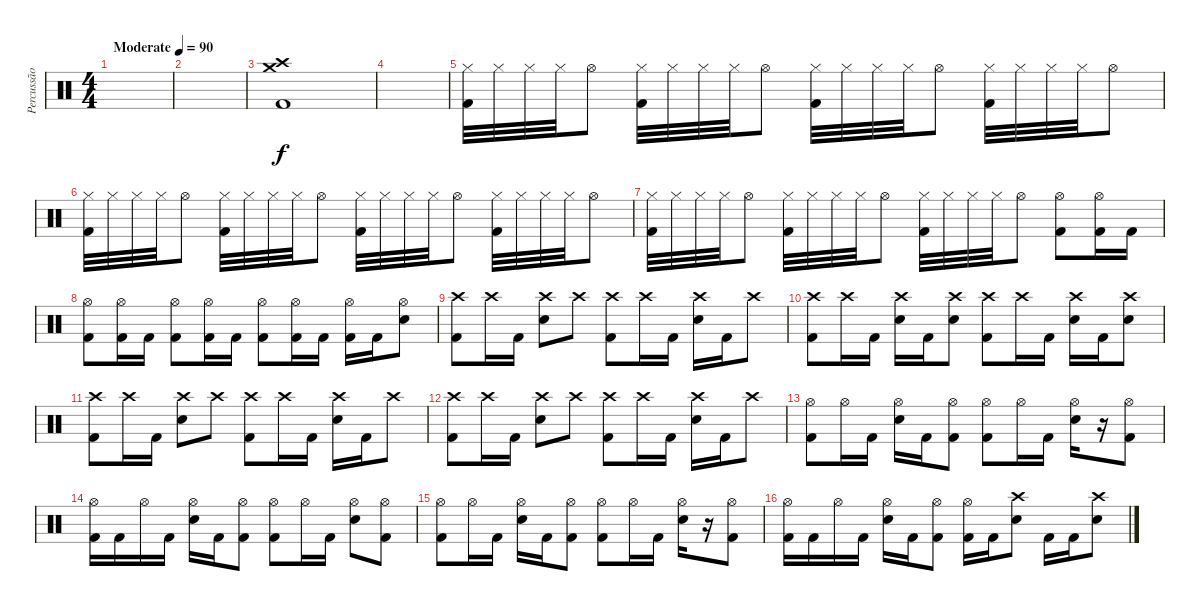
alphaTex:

\track ("Percussão" "Percussão") {instrument percussion}
\staff {score}
\articulation defaults
\ts (4 4)
\tempo (90 "Moderate")
\clef neutral
\ks c
|
|
("Crash medium (hit)" "Crash high (hit)" "Kick (hit) 2").1 |
|
("Hi-Hat (closed)" "Kick (hit) 2").32 "Hi-Hat (closed)".32 "Hi-Hat (closed)".32 "Hi-Hat (closed)".32 "Hi-Hat (open)".8 ("Hi-Hat (closed)" "Kick (hit) 2").32 "Hi-Hat (closed)".32 "Hi-Hat (closed)".32 "Hi-Hat (closed)".32 "Hi-Hat (open)".8 ("Hi-Hat (closed)" "Kick (hit) 2").32 "Hi-Hat (closed)".32 "Hi-Hat (closed)".32 "Hi-Hat (closed)".32 "Hi-Hat (open)".8 ("Hi-Hat (closed)" "Kick (hit) 2").32 "Hi-Hat (closed)".32 "Hi-Hat (closed)".32 "Hi-Hat (closed)".32 "Hi-Hat (open)".8 |
("Hi-Hat (closed)" "Kick (hit) 2").32 "Hi-Hat (closed)".32 "Hi-Hat (closed)".32 "Hi-Hat (closed)".32 "Hi-Hat (open)".8 ("Hi-Hat (closed)" "Kick (hit) 2").32 "Hi-Hat (closed)".32 "Hi-Hat (closed)".32 "Hi-Hat (closed)".32 "Hi-Hat (open)".8 ("Hi-Hat (closed)" "Kick (hit) 2").32 "Hi-Hat (closed)".32 "Hi-Hat (closed)".32 "Hi-Hat (closed)".32 "Hi-Hat (open)".8 ("Hi-Hat (closed)" "Kick (hit) 2").32 "Hi-Hat (closed)".32 "Hi-Hat (closed)".32 "Hi-Hat (closed)".32 "Hi-Hat (open)".8 |
("Hi-Hat (closed)" "Kick (hit) 2").32 "Hi-Hat (closed)".32 "Hi-Hat (closed)".32 "Hi-Hat (closed)".32 "Hi-Hat (open)".8 ("Hi-Hat (closed)" "Kick (hit) 2").32 "Hi-Hat (closed)".32 "Hi-Hat (closed)".32 "Hi-Hat (closed)".32 "Hi-Hat (open)".8 ("Hi-Hat (closed)" "Kick (hit) 2").32 "Hi-Hat (closed)".32 "Hi-Hat (closed)".32 "Hi-Hat (closed)".32 "Hi-Hat (open)".8 ("Hi-Hat (open)" "Kick (hit) 2").8 ("Hi-Hat (open)" "Kick (hit) 2").16 "Kick (hit) 2".16 |
("Hi-Hat (open)" "Kick (hit) 2").8 ("Hi-Hat (open)" "Kick (hit) 2").16 "Kick (hit) 2".16 ("Hi-Hat (open)" "Kick (hit) 2").8 ("Hi-Hat (open)" "Kick (hit) 2").16 "Kick (hit) 2".16 ("Hi-Hat (open)" "Kick (hit) 2").8 ("Hi-Hat (open)" "Kick (hit) 2").16 "Kick (hit) 2".16 ("Hi-Hat (open)" "Kick (hit) 2").16 "Kick (hit) 2".16 ("Hi-Hat (open)" "Electric Snare (hit)").8 |
("Crash high (hit)" "Kick (hit) 2").8 "Crash high (hit)".16 "Kick (hit) 2".16 ("Crash high (hit)" "Electric Snare (hit)").8 "Crash high (hit)".8 ("Crash high (hit)" "Kick (hit) 2").8 "Crash high (hit)".16 "Kick (hit) 2".16 ("Crash high (hit)" "Electric Snare (hit)").16 "Kick (hit) 2".16 "Crash high (hit)".8 |
("Crash high (hit)" "Kick (hit) 2").8 "Crash high (hit)".16 "Kick (hit) 2".16 ("Crash high (hit)" "Electric Snare (hit)").16 "Kick (hit) 2".16 ("Crash high (hit)" "Electric Snare (hit)").8 ("Crash high (hit)" "Kick (hit) 2").8 "Crash high (hit)".16 "Kick (hit) 2".16 ("Crash high (hit)" "Electric Snare (hit)").16 "Kick (hit) 2".16 ("Crash high (hit)" "Electric Snare (hit)").8 |
("Crash high (hit)" "Kick (hit) 2").8 "Crash high (hit)".16 "Kick (hit) 2".16 ("Crash high (hit)" "Electric Snare (hit)").8 "Crash high (hit)".8 ("Crash high (hit)" "Kick (hit) 2").8 "Crash high (hit)".16 "Kick (hit) 2".16 ("Crash high (hit)" "Electric Snare (hit)").16 "Kick (hit) 2".16 "Crash high (hit)".8 |
("Crash high (hit)" "Kick (hit) 2").8 "Crash high (hit)".16 "Kick (hit) 2".16 ("Crash high (hit)" "Electric Snare (hit)").8 "Crash high (hit)".8 ("Crash high (hit)" "Kick (hit) 2").8 "Crash high (hit)".16 "Kick (hit) 2".16 ("Crash high (hit)" "Electric Snare (hit)").16 "Kick (hit) 2".16 "Crash high (hit)".8 |
("Hi-Hat (open)" "Kick (hit) 2").8 "Hi-Hat (open)".16 "Kick (hit) 2".16 ("Hi-Hat (open)" "Electric Snare (hit)").16 "Kick (hit) 2".16 ("Hi-Hat (open)" "Kick (hit) 2").8 ("Hi-Hat (open)" "Kick (hit) 2").8 "Hi-Hat (open)".16 "Kick (hit) 2".16 ("Hi-Hat (open)" "Electric Snare (hit)").16 r.16 ("Hi-Hat (open)" "Kick (hit) 2").8 |
("Hi-Hat (open)" "Kick (hit) 2").16 "Kick (hit) 2".16 "Hi-Hat (open)".16 "Kick (hit) 2".16 ("Hi-Hat (open)" "Electric Snare (hit)").16 "Kick (hit) 2".16 ("Hi-Hat (open)" "Kick (hit) 2").8 ("Hi-Hat (open)" "Kick (hit) 2").8 "Hi-Hat (open)".16 "Kick (hit) 2".16 ("Hi-Hat (open)" "Electric Snare (hit)").8 ("Hi-Hat (open)" "Kick (hit) 2").8 |
("Hi-Hat (open)" "Kick (hit) 2").8 "Hi-Hat (open)".16 "Kick (hit) 2".16 ("Hi-Hat (open)" "Electric Snare (hit)").16 "Kick (hit) 2".16 ("Hi-Hat (open)" "Kick (hit) 2").8 ("Hi-Hat (open)" "Kick (hit) 2").8 "Hi-Hat (open)".16 "Kick (hit) 2".16 ("Hi-Hat (open)" "Electric Snare (hit)").16 r.16 ("Hi-Hat (open)" "Kick (hit) 2").8 |
("Hi-Hat (open)" "Kick (hit) 2").16 "Kick (hit) 2".16 "Hi-Hat (open)".16 "Kick (hit) 2".16 ("Hi-Hat (open)" "Electric Snare (hit)").16 "Kick (hit) 2".16 ("Hi-Hat (open)" "Kick (hit) 2").8 ("Hi-Hat (open)" "Kick (hit) 2").16 "Kick (hit) 2".16 ("Crash high (hit)" "Electric Snare (hit)").8 "Kick (hit) 2".16 "Kick (hit) 2".16 ("Crash high (hit)" "Electric Snare (hit)").8
